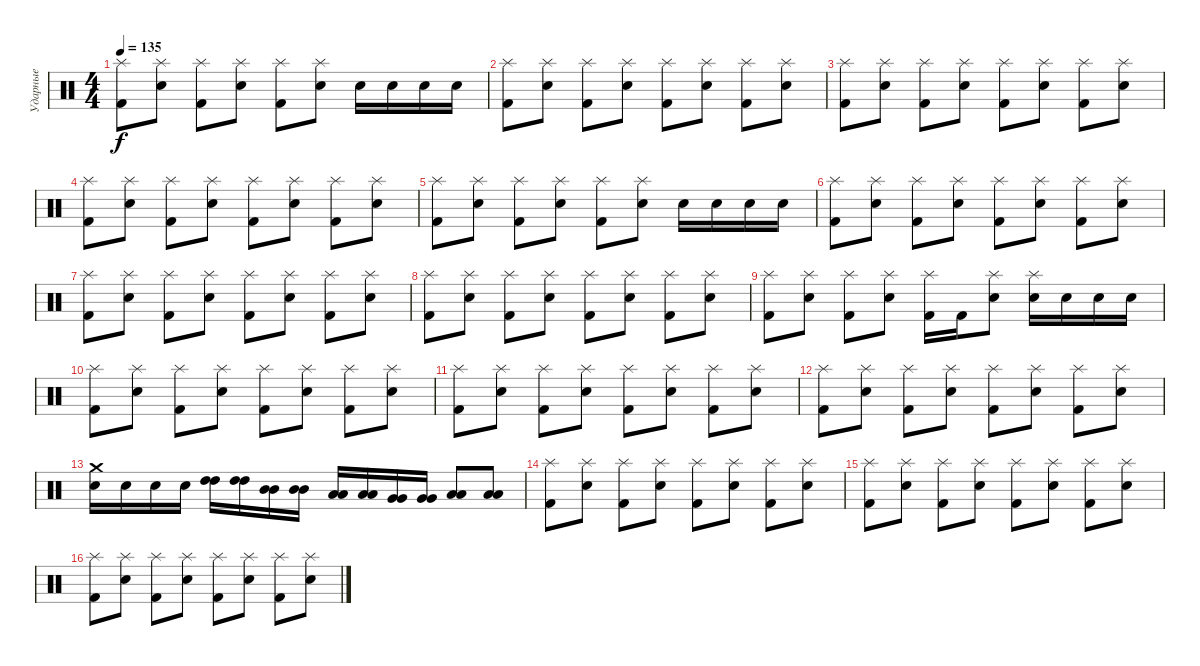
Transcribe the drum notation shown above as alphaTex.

\track ("Ударные" "Ударные") {instrument percussion}
\staff {score}
\articulation defaults
\ts (4 4)
\tempo 135
\clef neutral
\ks c
("Splash (hit)" "Kick (hit) 2").8{dy f} ("Splash (hit)" "Snare (hit) 2").8 ("Splash (hit)" "Kick (hit) 2").8 ("Splash (hit)" "Snare (hit) 2").8 ("Splash (hit)" "Kick (hit) 2").8 ("Splash (hit)" "Snare (hit) 2").8 "Snare (hit) 2".16 "Snare (hit) 2".16 "Snare (hit) 2".16 "Snare (hit) 2".16 |
("Splash (hit)" "Kick (hit) 2").8 ("Splash (hit)" "Snare (hit) 2").8 ("Splash (hit)" "Kick (hit) 2").8 ("Splash (hit)" "Snare (hit) 2").8 ("Splash (hit)" "Kick (hit) 2").8 ("Splash (hit)" "Snare (hit) 2").8 ("Splash (hit)" "Kick (hit) 2").8 ("Splash (hit)" "Snare (hit) 2").8 |
("Splash (hit)" "Kick (hit) 2").8 ("Splash (hit)" "Snare (hit) 2").8 ("Splash (hit)" "Kick (hit) 2").8 ("Splash (hit)" "Snare (hit) 2").8 ("Splash (hit)" "Kick (hit) 2").8 ("Splash (hit)" "Snare (hit) 2").8 ("Splash (hit)" "Kick (hit) 2").8 ("Splash (hit)" "Snare (hit) 2").8 |
("Splash (hit)" "Kick (hit) 2").8 ("Splash (hit)" "Snare (hit) 2").8 ("Splash (hit)" "Kick (hit) 2").8 ("Splash (hit)" "Snare (hit) 2").8 ("Splash (hit)" "Kick (hit) 2").8 ("Splash (hit)" "Snare (hit) 2").8 ("Splash (hit)" "Kick (hit) 2").8 ("Splash (hit)" "Snare (hit) 2").8 |
("Splash (hit)" "Kick (hit) 2").8 ("Splash (hit)" "Snare (hit) 2").8 ("Splash (hit)" "Kick (hit) 2").8 ("Splash (hit)" "Snare (hit) 2").8 ("Splash (hit)" "Kick (hit) 2").8 ("Splash (hit)" "Snare (hit) 2").8 "Snare (hit) 2".16 "Snare (hit) 2".16 "Snare (hit) 2".16 "Snare (hit) 2".16 |
("Splash (hit)" "Kick (hit) 2").8 ("Splash (hit)" "Snare (hit) 2").8 ("Splash (hit)" "Kick (hit) 2").8 ("Splash (hit)" "Snare (hit) 2").8 ("Splash (hit)" "Kick (hit) 2").8 ("Splash (hit)" "Snare (hit) 2").8 ("Splash (hit)" "Kick (hit) 2").8 ("Splash (hit)" "Snare (hit) 2").8 |
("Splash (hit)" "Kick (hit) 2").8 ("Splash (hit)" "Snare (hit) 2").8 ("Splash (hit)" "Kick (hit) 2").8 ("Splash (hit)" "Snare (hit) 2").8 ("Splash (hit)" "Kick (hit) 2").8 ("Splash (hit)" "Snare (hit) 2").8 ("Splash (hit)" "Kick (hit) 2").8 ("Splash (hit)" "Snare (hit) 2").8 |
("Splash (hit)" "Kick (hit) 2").8 ("Splash (hit)" "Snare (hit) 2").8 ("Splash (hit)" "Kick (hit) 2").8 ("Splash (hit)" "Snare (hit) 2").8 ("Splash (hit)" "Kick (hit) 2").8 ("Splash (hit)" "Snare (hit) 2").8 ("Splash (hit)" "Kick (hit) 2").8 ("Splash (hit)" "Snare (hit) 2").8 |
("Splash (hit)" "Kick (hit) 2").8 ("Splash (hit)" "Snare (hit) 2").8 ("Splash (hit)" "Kick (hit) 2").8 ("Splash (hit)" "Snare (hit) 2").8 ("Splash (hit)" "Kick (hit) 2").16 "Kick (hit) 2".16 ("Splash (hit)" "Snare (hit) 2").8 ("Splash (hit)" "Snare (hit) 2").16 "Snare (hit) 2".16 "Snare (hit) 2".16 "Snare (hit) 2".16 |
("Splash (hit)" "Kick (hit) 2").8 ("Splash (hit)" "Snare (hit) 2").8 ("Splash (hit)" "Kick (hit) 2").8 ("Splash (hit)" "Snare (hit) 2").8 ("Splash (hit)" "Kick (hit) 2").8 ("Splash (hit)" "Snare (hit) 2").8 ("Splash (hit)" "Kick (hit) 2").8 ("Splash (hit)" "Snare (hit) 2").8 |
("Splash (hit)" "Kick (hit) 2").8 ("Splash (hit)" "Snare (hit) 2").8 ("Splash (hit)" "Kick (hit) 2").8 ("Splash (hit)" "Snare (hit) 2").8 ("Splash (hit)" "Kick (hit) 2").8 ("Splash (hit)" "Snare (hit) 2").8 ("Splash (hit)" "Kick (hit) 2").8 ("Splash (hit)" "Snare (hit) 2").8 |
("Splash (hit)" "Kick (hit) 2").8 ("Splash (hit)" "Snare (hit) 2").8 ("Splash (hit)" "Kick (hit) 2").8 ("Splash (hit)" "Snare (hit) 2").8 ("Splash (hit)" "Kick (hit) 2").8 ("Splash (hit)" "Snare (hit) 2").8 ("Splash (hit)" "Kick (hit) 2").8 ("Splash (hit)" "Snare (hit) 2").8 |
("Crash medium (hit)" "Snare (hit) 2").16 "Snare (hit) 2".16 "Snare (hit) 2".16 "Snare (hit) 2".16 ("High Tom (hit)" "High Tom (hit)").16 ("High Tom (hit)" "High Tom (hit)").16 ("Mid Tom (hit)" "Mid Tom (hit)").16 ("Mid Tom (hit)" "Mid Tom (hit)").16 ("Low Tom (hit)" "Low Tom (hit)").16 ("Low Tom (hit)" "Low Tom (hit)").16 ("Very Low Tom (hit)" "Very Low Tom (hit)").16 ("Very Low Tom (hit)" "Very Low Tom (hit)").16 ("Low Floor Tom (hit)" "Low Floor Tom (hit)").8 ("Low Floor Tom (hit)" "Low Floor Tom (hit)").8 |
("Splash (hit)" "Kick (hit) 2").8 ("Splash (hit)" "Snare (hit) 2").8 ("Splash (hit)" "Kick (hit) 2").8 ("Splash (hit)" "Snare (hit) 2").8 ("Splash (hit)" "Kick (hit) 2").8 ("Splash (hit)" "Snare (hit) 2").8 ("Splash (hit)" "Kick (hit) 2").8 ("Splash (hit)" "Snare (hit) 2").8 |
("Splash (hit)" "Kick (hit) 2").8 ("Splash (hit)" "Snare (hit) 2").8 ("Splash (hit)" "Kick (hit) 2").8 ("Splash (hit)" "Snare (hit) 2").8 ("Splash (hit)" "Kick (hit) 2").8 ("Splash (hit)" "Snare (hit) 2").8 ("Splash (hit)" "Kick (hit) 2").8 ("Splash (hit)" "Snare (hit) 2").8 |
("Splash (hit)" "Kick (hit) 2").8 ("Splash (hit)" "Snare (hit) 2").8 ("Splash (hit)" "Kick (hit) 2").8 ("Splash (hit)" "Snare (hit) 2").8 ("Splash (hit)" "Kick (hit) 2").8 ("Splash (hit)" "Snare (hit) 2").8 ("Splash (hit)" "Kick (hit) 2").8 ("Splash (hit)" "Snare (hit) 2").8
